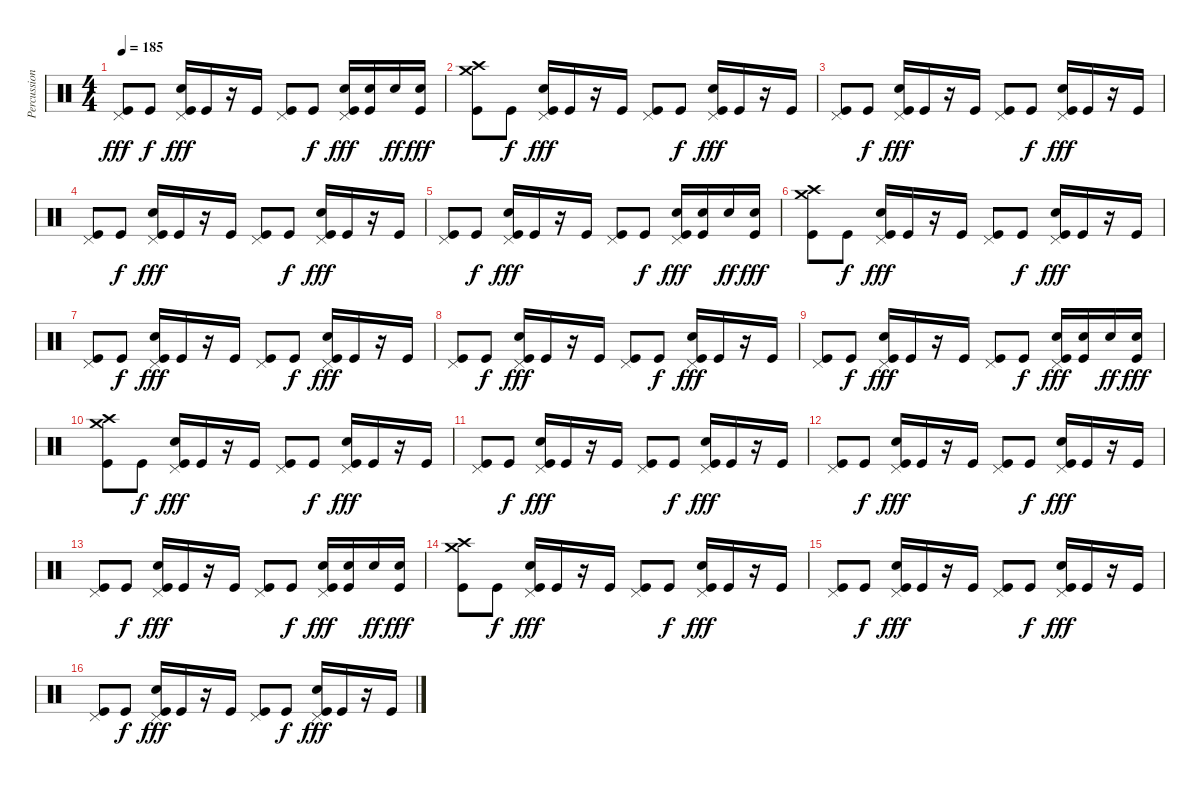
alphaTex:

\track ("Percussions" "Percussion") {instrument percussion}
\staff {score}
\articulation defaults
\ts (4 4)
\tempo 185
\clef neutral
\ks c
("Pedal Hi-Hat (hit)" "Kick (hit)").8{dy fff} "Kick (hit)".8{dy f} ("Pedal Hi-Hat (hit)" "Electric Snare (hit)" "Kick (hit)").16{dy fff} "Kick (hit)".16 r.16 "Kick (hit)".16 ("Pedal Hi-Hat (hit)" "Kick (hit)").8 "Kick (hit)".8{dy f} ("Pedal Hi-Hat (hit)" "Electric Snare (hit)" "Kick (hit)").16{dy fff} ("Electric Snare (hit)" "Kick (hit)").16 "Electric Snare (hit)".16{dy ff} ("Electric Snare (hit)" "Kick (hit)").16{dy fff} |
\section ("" "")
("Crash medium (hit)" "Crash high (hit)" "Kick (hit)").8 "Kick (hit)".8{dy f} ("Pedal Hi-Hat (hit)" "Electric Snare (hit)" "Kick (hit)").16{dy fff} "Kick (hit)".16 r.16 "Kick (hit)".16 ("Pedal Hi-Hat (hit)" "Kick (hit)").8 "Kick (hit)".8{dy f} ("Pedal Hi-Hat (hit)" "Electric Snare (hit)" "Kick (hit)").16{dy fff} "Kick (hit)".16 r.16 "Kick (hit)".16 |
("Pedal Hi-Hat (hit)" "Kick (hit)").8 "Kick (hit)".8{dy f} ("Pedal Hi-Hat (hit)" "Electric Snare (hit)" "Kick (hit)").16{dy fff} "Kick (hit)".16 r.16 "Kick (hit)".16 ("Pedal Hi-Hat (hit)" "Kick (hit)").8 "Kick (hit)".8{dy f} ("Pedal Hi-Hat (hit)" "Electric Snare (hit)" "Kick (hit)").16{dy fff} "Kick (hit)".16 r.16 "Kick (hit)".16 |
("Pedal Hi-Hat (hit)" "Kick (hit)").8 "Kick (hit)".8{dy f} ("Pedal Hi-Hat (hit)" "Electric Snare (hit)" "Kick (hit)").16{dy fff} "Kick (hit)".16 r.16 "Kick (hit)".16 ("Pedal Hi-Hat (hit)" "Kick (hit)").8 "Kick (hit)".8{dy f} ("Pedal Hi-Hat (hit)" "Electric Snare (hit)" "Kick (hit)").16{dy fff} "Kick (hit)".16 r.16 "Kick (hit)".16 |
("Pedal Hi-Hat (hit)" "Kick (hit)").8 "Kick (hit)".8{dy f} ("Pedal Hi-Hat (hit)" "Electric Snare (hit)" "Kick (hit)").16{dy fff} "Kick (hit)".16 r.16 "Kick (hit)".16 ("Pedal Hi-Hat (hit)" "Kick (hit)").8 "Kick (hit)".8{dy f} ("Pedal Hi-Hat (hit)" "Electric Snare (hit)" "Kick (hit)").16{dy fff} ("Electric Snare (hit)" "Kick (hit)").16 "Electric Snare (hit)".16{dy ff} ("Electric Snare (hit)" "Kick (hit)").16{dy fff} |
("Crash medium (hit)" "Crash high (hit)" "Kick (hit)").8 "Kick (hit)".8{dy f} ("Pedal Hi-Hat (hit)" "Electric Snare (hit)" "Kick (hit)").16{dy fff} "Kick (hit)".16 r.16 "Kick (hit)".16 ("Pedal Hi-Hat (hit)" "Kick (hit)").8 "Kick (hit)".8{dy f} ("Pedal Hi-Hat (hit)" "Electric Snare (hit)" "Kick (hit)").16{dy fff} "Kick (hit)".16 r.16 "Kick (hit)".16 |
("Pedal Hi-Hat (hit)" "Kick (hit)").8 "Kick (hit)".8{dy f} ("Pedal Hi-Hat (hit)" "Electric Snare (hit)" "Kick (hit)").16{dy fff} "Kick (hit)".16 r.16 "Kick (hit)".16 ("Pedal Hi-Hat (hit)" "Kick (hit)").8 "Kick (hit)".8{dy f} ("Pedal Hi-Hat (hit)" "Electric Snare (hit)" "Kick (hit)").16{dy fff} "Kick (hit)".16 r.16 "Kick (hit)".16 |
("Pedal Hi-Hat (hit)" "Kick (hit)").8 "Kick (hit)".8{dy f} ("Pedal Hi-Hat (hit)" "Electric Snare (hit)" "Kick (hit)").16{dy fff} "Kick (hit)".16 r.16 "Kick (hit)".16 ("Pedal Hi-Hat (hit)" "Kick (hit)").8 "Kick (hit)".8{dy f} ("Pedal Hi-Hat (hit)" "Electric Snare (hit)" "Kick (hit)").16{dy fff} "Kick (hit)".16 r.16 "Kick (hit)".16 |
("Pedal Hi-Hat (hit)" "Kick (hit)").8 "Kick (hit)".8{dy f} ("Pedal Hi-Hat (hit)" "Electric Snare (hit)" "Kick (hit)").16{dy fff} "Kick (hit)".16 r.16 "Kick (hit)".16 ("Pedal Hi-Hat (hit)" "Kick (hit)").8 "Kick (hit)".8{dy f} ("Pedal Hi-Hat (hit)" "Electric Snare (hit)" "Kick (hit)").16{dy fff} ("Electric Snare (hit)" "Kick (hit)").16 "Electric Snare (hit)".16{dy ff} ("Electric Snare (hit)" "Kick (hit)").16{dy fff} |
("Crash medium (hit)" "Crash high (hit)" "Kick (hit)").8 "Kick (hit)".8{dy f} ("Pedal Hi-Hat (hit)" "Electric Snare (hit)" "Kick (hit)").16{dy fff} "Kick (hit)".16 r.16 "Kick (hit)".16 ("Pedal Hi-Hat (hit)" "Kick (hit)").8 "Kick (hit)".8{dy f} ("Pedal Hi-Hat (hit)" "Electric Snare (hit)" "Kick (hit)").16{dy fff} "Kick (hit)".16 r.16 "Kick (hit)".16 |
("Pedal Hi-Hat (hit)" "Kick (hit)").8 "Kick (hit)".8{dy f} ("Pedal Hi-Hat (hit)" "Electric Snare (hit)" "Kick (hit)").16{dy fff} "Kick (hit)".16 r.16 "Kick (hit)".16 ("Pedal Hi-Hat (hit)" "Kick (hit)").8 "Kick (hit)".8{dy f} ("Pedal Hi-Hat (hit)" "Electric Snare (hit)" "Kick (hit)").16{dy fff} "Kick (hit)".16 r.16 "Kick (hit)".16 |
("Pedal Hi-Hat (hit)" "Kick (hit)").8 "Kick (hit)".8{dy f} ("Pedal Hi-Hat (hit)" "Electric Snare (hit)" "Kick (hit)").16{dy fff} "Kick (hit)".16 r.16 "Kick (hit)".16 ("Pedal Hi-Hat (hit)" "Kick (hit)").8 "Kick (hit)".8{dy f} ("Pedal Hi-Hat (hit)" "Electric Snare (hit)" "Kick (hit)").16{dy fff} "Kick (hit)".16 r.16 "Kick (hit)".16 |
("Pedal Hi-Hat (hit)" "Kick (hit)").8 "Kick (hit)".8{dy f} ("Pedal Hi-Hat (hit)" "Electric Snare (hit)" "Kick (hit)").16{dy fff} "Kick (hit)".16 r.16 "Kick (hit)".16 ("Pedal Hi-Hat (hit)" "Kick (hit)").8 "Kick (hit)".8{dy f} ("Pedal Hi-Hat (hit)" "Electric Snare (hit)" "Kick (hit)").16{dy fff} ("Electric Snare (hit)" "Kick (hit)").16 "Electric Snare (hit)".16{dy ff} ("Electric Snare (hit)" "Kick (hit)").16{dy fff} |
("Crash medium (hit)" "Crash high (hit)" "Kick (hit)").8 "Kick (hit)".8{dy f} ("Pedal Hi-Hat (hit)" "Electric Snare (hit)" "Kick (hit)").16{dy fff} "Kick (hit)".16 r.16 "Kick (hit)".16 ("Pedal Hi-Hat (hit)" "Kick (hit)").8 "Kick (hit)".8{dy f} ("Pedal Hi-Hat (hit)" "Electric Snare (hit)" "Kick (hit)").16{dy fff} "Kick (hit)".16 r.16 "Kick (hit)".16 |
("Pedal Hi-Hat (hit)" "Kick (hit)").8 "Kick (hit)".8{dy f} ("Pedal Hi-Hat (hit)" "Electric Snare (hit)" "Kick (hit)").16{dy fff} "Kick (hit)".16 r.16 "Kick (hit)".16 ("Pedal Hi-Hat (hit)" "Kick (hit)").8 "Kick (hit)".8{dy f} ("Pedal Hi-Hat (hit)" "Electric Snare (hit)" "Kick (hit)").16{dy fff} "Kick (hit)".16 r.16 "Kick (hit)".16 |
("Pedal Hi-Hat (hit)" "Kick (hit)").8 "Kick (hit)".8{dy f} ("Pedal Hi-Hat (hit)" "Electric Snare (hit)" "Kick (hit)").16{dy fff} "Kick (hit)".16 r.16 "Kick (hit)".16 ("Pedal Hi-Hat (hit)" "Kick (hit)").8 "Kick (hit)".8{dy f} ("Pedal Hi-Hat (hit)" "Electric Snare (hit)" "Kick (hit)").16{dy fff} "Kick (hit)".16 r.16 "Kick (hit)".16
